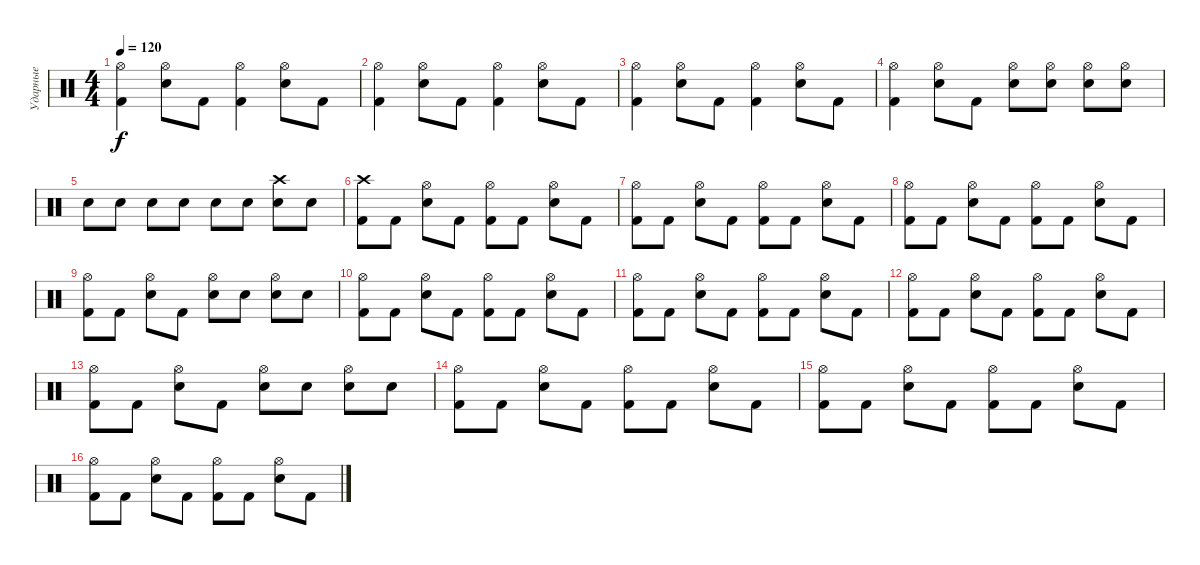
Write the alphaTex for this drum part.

\track ("Ударные" "Ударные") {instrument percussion}
\staff {score}
\articulation defaults
\ts (4 4)
\tempo 120
\clef neutral
\ks c
("Hi-Hat (open)" "Kick (hit) 2").4{dy f} ("Hi-Hat (open)" "Snare (hit) 2").8 "Kick (hit) 2".8 ("Hi-Hat (open)" "Kick (hit) 2").4 ("Hi-Hat (open)" "Snare (hit) 2").8 "Kick (hit) 2".8 |
("Hi-Hat (open)" "Kick (hit) 2").4 ("Hi-Hat (open)" "Snare (hit) 2").8 "Kick (hit) 2".8 ("Hi-Hat (open)" "Kick (hit) 2").4 ("Hi-Hat (open)" "Snare (hit) 2").8 "Kick (hit) 2".8 |
("Hi-Hat (open)" "Kick (hit) 2").4 ("Hi-Hat (open)" "Snare (hit) 2").8 "Kick (hit) 2".8 ("Hi-Hat (open)" "Kick (hit) 2").4 ("Hi-Hat (open)" "Snare (hit) 2").8 "Kick (hit) 2".8 |
("Hi-Hat (open)" "Kick (hit) 2").4 ("Hi-Hat (open)" "Snare (hit) 2").8 "Kick (hit) 2".8 ("Hi-Hat (open)" "Snare (hit) 2").8 ("Hi-Hat (open)" "Snare (hit) 2").8 ("Hi-Hat (open)" "Snare (hit) 2").8 ("Hi-Hat (open)" "Snare (hit) 2").8 |
"Snare (hit) 2".8 "Snare (hit) 2".8 "Snare (hit) 2".8 "Snare (hit) 2".8 "Snare (hit) 2".8 "Snare (hit) 2".8 ("Crash high (hit)" "Snare (hit) 2").8 "Snare (hit) 2".8 |
("Crash high (hit)" "Kick (hit) 2").8 "Kick (hit) 2".8 ("Hi-Hat (open)" "Snare (hit) 2").8 "Kick (hit) 2".8 ("Hi-Hat (open)" "Kick (hit) 2").8 "Kick (hit) 2".8 ("Hi-Hat (open)" "Snare (hit) 2").8 "Kick (hit) 2".8 |
("Hi-Hat (open)" "Kick (hit) 2").8 "Kick (hit) 2".8 ("Hi-Hat (open)" "Snare (hit) 2").8 "Kick (hit) 2".8 ("Hi-Hat (open)" "Kick (hit) 2").8 "Kick (hit) 2".8 ("Hi-Hat (open)" "Snare (hit) 2").8 "Kick (hit) 2".8 |
("Hi-Hat (open)" "Kick (hit) 2").8 "Kick (hit) 2".8 ("Hi-Hat (open)" "Snare (hit) 2").8 "Kick (hit) 2".8 ("Hi-Hat (open)" "Kick (hit) 2").8 "Kick (hit) 2".8 ("Hi-Hat (open)" "Snare (hit) 2").8 "Kick (hit) 2".8 |
("Hi-Hat (open)" "Kick (hit) 2").8 "Kick (hit) 2".8 ("Hi-Hat (open)" "Snare (hit) 2").8 "Kick (hit) 2".8 ("Hi-Hat (open)" "Snare (hit) 2").8 "Snare (hit) 2".8 ("Hi-Hat (open)" "Snare (hit) 2").8 "Snare (hit) 2".8 |
("Hi-Hat (open)" "Kick (hit) 2").8 "Kick (hit) 2".8 ("Hi-Hat (open)" "Snare (hit) 2").8 "Kick (hit) 2".8 ("Hi-Hat (open)" "Kick (hit) 2").8 "Kick (hit) 2".8 ("Hi-Hat (open)" "Snare (hit) 2").8 "Kick (hit) 2".8 |
("Hi-Hat (open)" "Kick (hit) 2").8 "Kick (hit) 2".8 ("Hi-Hat (open)" "Snare (hit) 2").8 "Kick (hit) 2".8 ("Hi-Hat (open)" "Kick (hit) 2").8 "Kick (hit) 2".8 ("Hi-Hat (open)" "Snare (hit) 2").8 "Kick (hit) 2".8 |
("Hi-Hat (open)" "Kick (hit) 2").8 "Kick (hit) 2".8 ("Hi-Hat (open)" "Snare (hit) 2").8 "Kick (hit) 2".8 ("Hi-Hat (open)" "Kick (hit) 2").8 "Kick (hit) 2".8 ("Hi-Hat (open)" "Snare (hit) 2").8 "Kick (hit) 2".8 |
("Hi-Hat (open)" "Kick (hit) 2").8 "Kick (hit) 2".8 ("Hi-Hat (open)" "Snare (hit) 2").8 "Kick (hit) 2".8 ("Hi-Hat (open)" "Snare (hit) 2").8 "Snare (hit) 2".8 ("Hi-Hat (open)" "Snare (hit) 2").8 "Snare (hit) 2".8 |
("Hi-Hat (open)" "Kick (hit) 2").8 "Kick (hit) 2".8 ("Hi-Hat (open)" "Snare (hit) 2").8 "Kick (hit) 2".8 ("Hi-Hat (open)" "Kick (hit) 2").8 "Kick (hit) 2".8 ("Hi-Hat (open)" "Snare (hit) 2").8 "Kick (hit) 2".8 |
("Hi-Hat (open)" "Kick (hit) 2").8 "Kick (hit) 2".8 ("Hi-Hat (open)" "Snare (hit) 2").8 "Kick (hit) 2".8 ("Hi-Hat (open)" "Kick (hit) 2").8 "Kick (hit) 2".8 ("Hi-Hat (open)" "Snare (hit) 2").8 "Kick (hit) 2".8 |
("Hi-Hat (open)" "Kick (hit) 2").8 "Kick (hit) 2".8 ("Hi-Hat (open)" "Snare (hit) 2").8 "Kick (hit) 2".8 ("Hi-Hat (open)" "Kick (hit) 2").8 "Kick (hit) 2".8 ("Hi-Hat (open)" "Snare (hit) 2").8 "Kick (hit) 2".8
